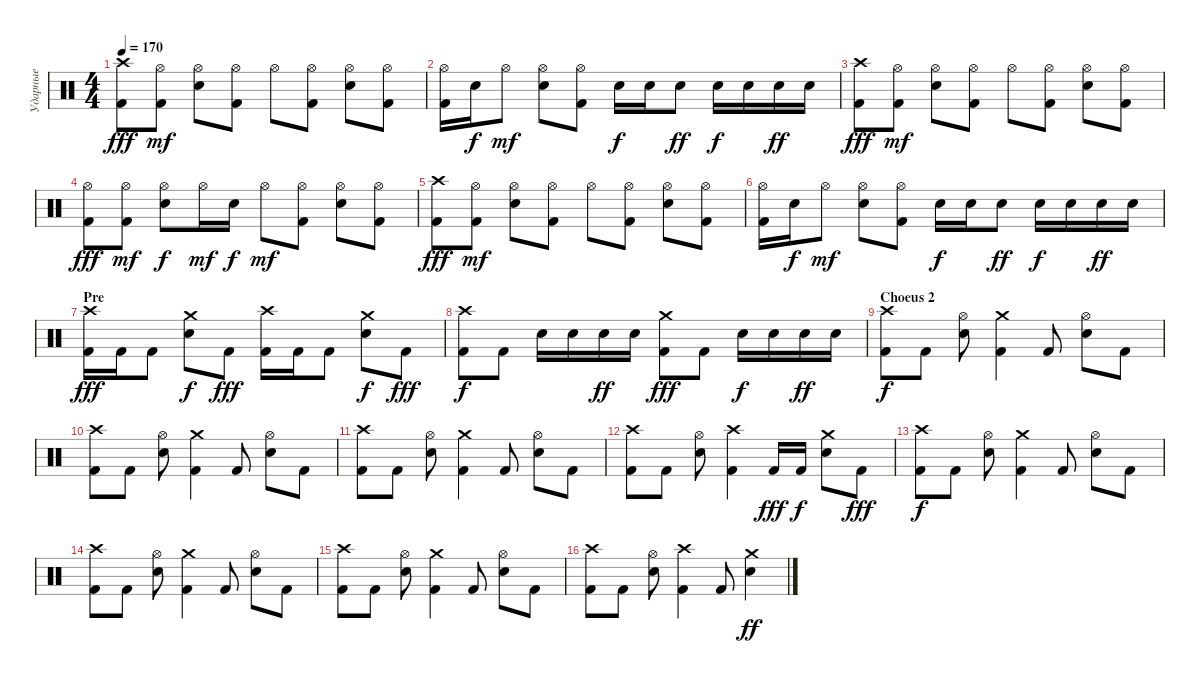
\track ("Ударные" "Ударные") {instrument percussion}
\staff {score}
\articulation defaults
\ts (4 4)
\tempo 170
\clef neutral
\ks c
("Kick (hit) 2" "Crash high (hit)").8{dy fff} ("Kick (hit) 2" "Hi-Hat (open)").8{dy mf} ("Snare (hit) 2" "Hi-Hat (open)").8 ("Kick (hit) 2" "Hi-Hat (open)").8 "Hi-Hat (open)".8 ("Kick (hit) 2" "Hi-Hat (open)").8 ("Snare (hit) 2" "Hi-Hat (open)").8 ("Kick (hit) 2" "Hi-Hat (open)").8 |
("Kick (hit) 2" "Hi-Hat (open)").16 "Snare (hit) 2".16{dy f} "Hi-Hat (open)".8{dy mf} ("Snare (hit) 2" "Hi-Hat (open)").8 ("Kick (hit) 2" "Hi-Hat (open)").8 "Snare (hit) 2".16{dy f} "Snare (hit) 2".16 "Snare (hit) 2".8{dy ff} "Snare (hit) 2".16{dy f} "Snare (hit) 2".16 "Snare (hit) 2".16{dy ff} "Snare (hit) 2".16 |
("Kick (hit) 2" "Crash high (hit)").8{dy fff} ("Kick (hit) 2" "Hi-Hat (open)").8{dy mf} ("Snare (hit) 2" "Hi-Hat (open)").8 ("Kick (hit) 2" "Hi-Hat (open)").8 "Hi-Hat (open)".8 ("Kick (hit) 2" "Hi-Hat (open)").8 ("Snare (hit) 2" "Hi-Hat (open)").8 ("Kick (hit) 2" "Hi-Hat (open)").8 |
("Kick (hit) 2" "Hi-Hat (open)").8{dy fff} ("Kick (hit) 2" "Hi-Hat (open)").8{dy mf} ("Snare (hit) 2" "Hi-Hat (open)").8{dy f} "Hi-Hat (open)".16{dy mf} "Snare (hit) 2".16{dy f} "Hi-Hat (open)".8{dy mf} ("Kick (hit) 2" "Hi-Hat (open)").8 ("Snare (hit) 2" "Hi-Hat (open)").8 ("Kick (hit) 2" "Hi-Hat (open)").8 |
("Kick (hit) 2" "Crash high (hit)").8{dy fff} ("Kick (hit) 2" "Hi-Hat (open)").8{dy mf} ("Snare (hit) 2" "Hi-Hat (open)").8 ("Kick (hit) 2" "Hi-Hat (open)").8 "Hi-Hat (open)".8 ("Kick (hit) 2" "Hi-Hat (open)").8 ("Snare (hit) 2" "Hi-Hat (open)").8 ("Kick (hit) 2" "Hi-Hat (open)").8 |
("Kick (hit) 2" "Hi-Hat (open)").16 "Snare (hit) 2".16{dy f} "Hi-Hat (open)".8{dy mf} ("Snare (hit) 2" "Hi-Hat (open)").8 ("Kick (hit) 2" "Hi-Hat (open)").8 "Snare (hit) 2".16{dy f} "Snare (hit) 2".16 "Snare (hit) 2".8{dy ff} "Snare (hit) 2".16{dy f} "Snare (hit) 2".16 "Snare (hit) 2".16{dy ff} "Snare (hit) 2".16 |
\section ("" "Pre")
("Kick (hit) 2" "Crash high (hit)").16{dy fff} "Kick (hit) 2".16 "Kick (hit) 2".8 ("Snare (hit) 2" "Crash medium (hit)").8{dy f} "Kick (hit) 2".8{dy fff} ("Kick (hit) 2" "Crash high (hit)").16 "Kick (hit) 2".16 "Kick (hit) 2".8 ("Snare (hit) 2" "Crash medium (hit)").8{dy f} "Kick (hit) 2".8{dy fff} |
("Kick (hit) 2" "Crash high (hit)").8{dy f} "Kick (hit) 2".8 "Snare (hit) 2".16 "Snare (hit) 2".16 "Snare (hit) 2".16{dy ff} "Snare (hit) 2".16 ("Kick (hit) 2" "Crash medium (hit)").8{dy fff} "Kick (hit) 2".8 "Snare (hit) 2".16{dy f} "Snare (hit) 2".16 "Snare (hit) 2".16{dy ff} "Snare (hit) 2".16 |
\section ("" "Choeus 2")
("Kick (hit) 2" "Crash high (hit)").8{dy f} "Kick (hit) 2".8 ("Snare (hit) 2" "Hi-Hat (open)").8 ("Kick (hit) 2" "Crash medium (hit)").4 "Kick (hit) 2".8 ("Snare (hit) 2" "Hi-Hat (open)").8 "Kick (hit) 2".8 |
("Kick (hit) 2" "Crash high (hit)").8 "Kick (hit) 2".8 ("Snare (hit) 2" "Hi-Hat (open)").8 ("Kick (hit) 2" "Crash medium (hit)").4 "Kick (hit) 2".8 ("Snare (hit) 2" "Hi-Hat (open)").8 "Kick (hit) 2".8 |
("Kick (hit) 2" "Crash high (hit)").8 "Kick (hit) 2".8 ("Snare (hit) 2" "Hi-Hat (open)").8 ("Kick (hit) 2" "Crash medium (hit)").4 "Kick (hit) 2".8 ("Snare (hit) 2" "Hi-Hat (open)").8 "Kick (hit) 2".8 |
("Kick (hit) 2" "Crash high (hit)").8 "Kick (hit) 2".8 ("Snare (hit) 2" "Hi-Hat (open)").8 ("Kick (hit) 2" "Crash high (hit)").4 "Kick (hit) 2".16{dy fff} "Kick (hit) 2".16{dy f} ("Snare (hit) 2" "Crash medium (hit)").8 "Kick (hit) 2".8{dy fff} |
("Kick (hit) 2" "Crash high (hit)").8{dy f} "Kick (hit) 2".8 ("Snare (hit) 2" "Hi-Hat (open)").8 ("Kick (hit) 2" "Crash medium (hit)").4 "Kick (hit) 2".8 ("Snare (hit) 2" "Hi-Hat (open)").8 "Kick (hit) 2".8 |
("Kick (hit) 2" "Crash high (hit)").8 "Kick (hit) 2".8 ("Snare (hit) 2" "Hi-Hat (open)").8 ("Kick (hit) 2" "Crash medium (hit)").4 "Kick (hit) 2".8 ("Snare (hit) 2" "Hi-Hat (open)").8 "Kick (hit) 2".8 |
("Kick (hit) 2" "Crash high (hit)").8 "Kick (hit) 2".8 ("Snare (hit) 2" "Hi-Hat (open)").8 ("Kick (hit) 2" "Crash medium (hit)").4 "Kick (hit) 2".8 ("Snare (hit) 2" "Hi-Hat (open)").8 "Kick (hit) 2".8 |
("Kick (hit) 2" "Crash high (hit)").8 "Kick (hit) 2".8 ("Snare (hit) 2" "Hi-Hat (open)").8 ("Kick (hit) 2" "Crash high (hit)").4 "Kick (hit) 2".8 ("Snare (hit) 2" "Crash medium (hit)").4{dy ff}
